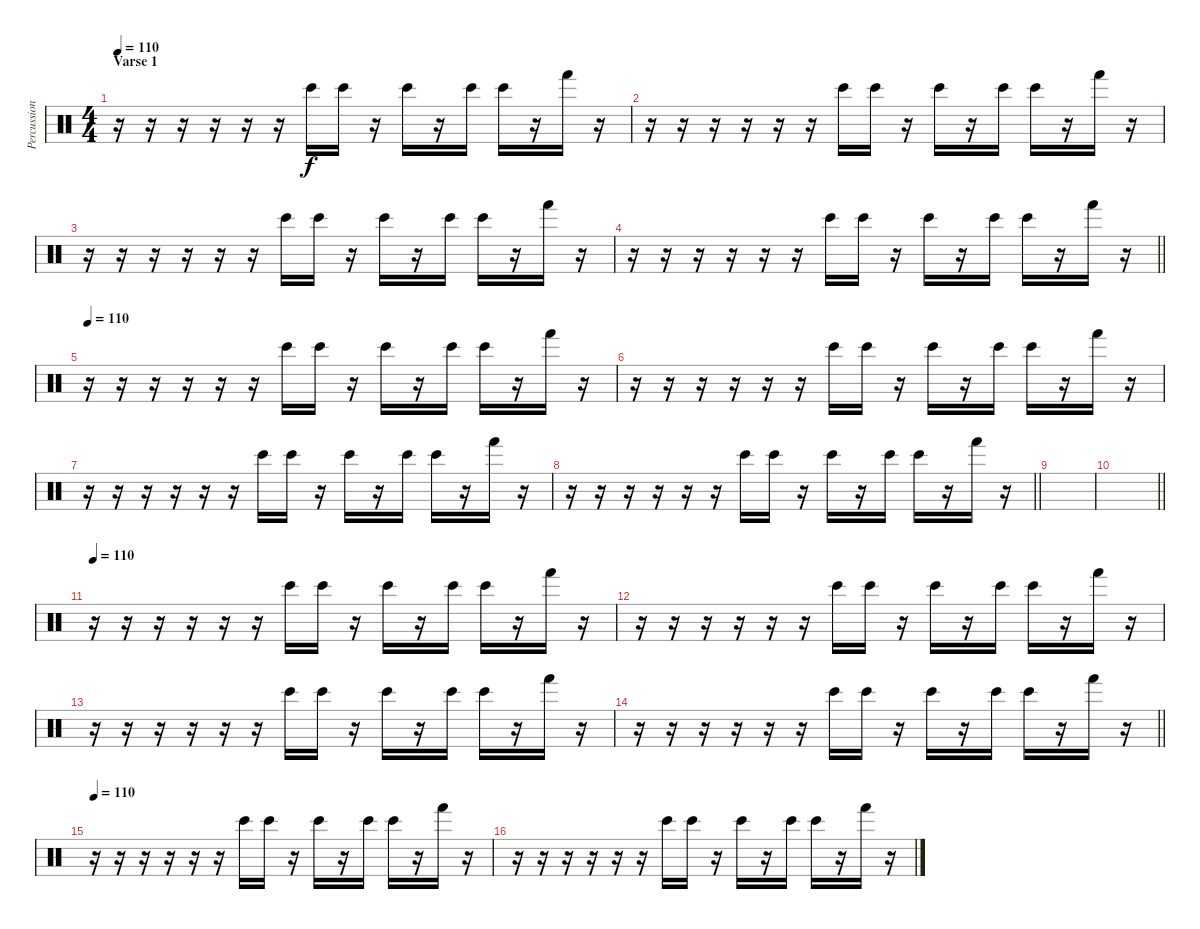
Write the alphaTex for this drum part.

\track ("Percussions" "Percussion") {instrument percussion}
\staff {score}
\articulation defaults
\ts (4 4)
\section ("" "Varse 1")
\tempo 110
\clef neutral
\ks c
r.16{dy f} r.16 r.16 r.16 r.16 r.16 "Bongo High (hit)".16 "Bongo High (hit)".16 r.16 "Bongo High (hit)".16 r.16 "Bongo High (hit)".16 "Bongo High (hit)".16 r.16 "Hand (hit)".16 r.16 |
r.16 r.16 r.16 r.16 r.16 r.16 "Bongo High (hit)".16 "Bongo High (hit)".16 r.16 "Bongo High (hit)".16 r.16 "Bongo High (hit)".16 "Bongo High (hit)".16 r.16 "Hand (hit)".16 r.16 |
r.16 r.16 r.16 r.16 r.16 r.16 "Bongo High (hit)".16 "Bongo High (hit)".16 r.16 "Bongo High (hit)".16 r.16 "Bongo High (hit)".16 "Bongo High (hit)".16 r.16 "Hand (hit)".16 r.16 |
\barLineRight lightlight
r.16 r.16 r.16 r.16 r.16 r.16 "Bongo High (hit)".16 "Bongo High (hit)".16 r.16 "Bongo High (hit)".16 r.16 "Bongo High (hit)".16 "Bongo High (hit)".16 r.16 "Hand (hit)".16 r.16 |
\tempo 110
r.16 r.16 r.16 r.16 r.16 r.16 "Bongo High (hit)".16 "Bongo High (hit)".16 r.16 "Bongo High (hit)".16 r.16 "Bongo High (hit)".16 "Bongo High (hit)".16 r.16 "Hand (hit)".16 r.16 |
r.16 r.16 r.16 r.16 r.16 r.16 "Bongo High (hit)".16 "Bongo High (hit)".16 r.16 "Bongo High (hit)".16 r.16 "Bongo High (hit)".16 "Bongo High (hit)".16 r.16 "Hand (hit)".16 r.16 |
r.16 r.16 r.16 r.16 r.16 r.16 "Bongo High (hit)".16 "Bongo High (hit)".16 r.16 "Bongo High (hit)".16 r.16 "Bongo High (hit)".16 "Bongo High (hit)".16 r.16 "Hand (hit)".16 r.16 |
\barLineRight lightlight
r.16 r.16 r.16 r.16 r.16 r.16 "Bongo High (hit)".16 "Bongo High (hit)".16 r.16 "Bongo High (hit)".16 r.16 "Bongo High (hit)".16 "Bongo High (hit)".16 r.16 "Hand (hit)".16 r.16 |
\section ("" "")
|
\barLineRight lightlight
|
\section ("" "")
\tempo 110
r.16 r.16 r.16 r.16 r.16 r.16 "Bongo High (hit)".16 "Bongo High (hit)".16 r.16 "Bongo High (hit)".16 r.16 "Bongo High (hit)".16 "Bongo High (hit)".16 r.16 "Hand (hit)".16 r.16 |
r.16 r.16 r.16 r.16 r.16 r.16 "Bongo High (hit)".16 "Bongo High (hit)".16 r.16 "Bongo High (hit)".16 r.16 "Bongo High (hit)".16 "Bongo High (hit)".16 r.16 "Hand (hit)".16 r.16 |
r.16 r.16 r.16 r.16 r.16 r.16 "Bongo High (hit)".16 "Bongo High (hit)".16 r.16 "Bongo High (hit)".16 r.16 "Bongo High (hit)".16 "Bongo High (hit)".16 r.16 "Hand (hit)".16 r.16 |
\barLineRight lightlight
r.16 r.16 r.16 r.16 r.16 r.16 "Bongo High (hit)".16 "Bongo High (hit)".16 r.16 "Bongo High (hit)".16 r.16 "Bongo High (hit)".16 "Bongo High (hit)".16 r.16 "Hand (hit)".16 r.16 |
\tempo 110
r.16 r.16 r.16 r.16 r.16 r.16 "Bongo High (hit)".16 "Bongo High (hit)".16 r.16 "Bongo High (hit)".16 r.16 "Bongo High (hit)".16 "Bongo High (hit)".16 r.16 "Hand (hit)".16 r.16 |
r.16 r.16 r.16 r.16 r.16 r.16 "Bongo High (hit)".16 "Bongo High (hit)".16 r.16 "Bongo High (hit)".16 r.16 "Bongo High (hit)".16 "Bongo High (hit)".16 r.16 "Hand (hit)".16 r.16
